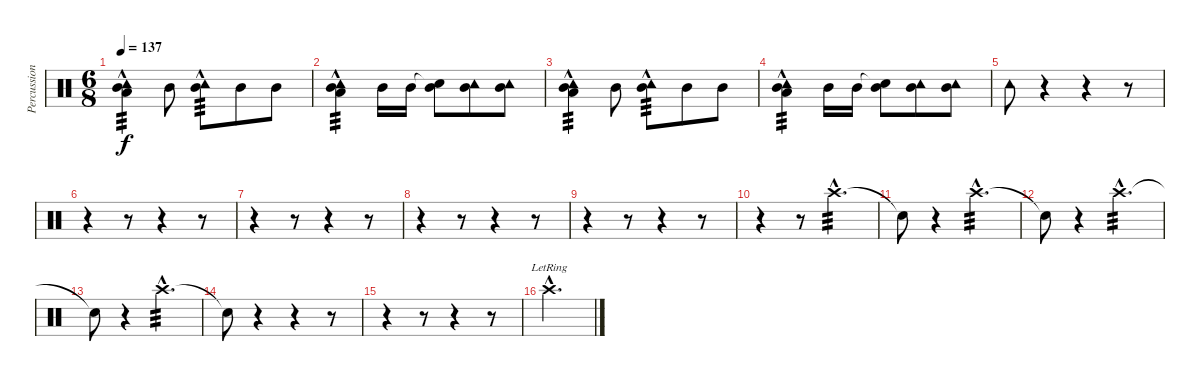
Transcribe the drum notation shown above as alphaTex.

\track ("Percussion" "Percussion") {instrument percussion}
\staff {score}
\articulation defaults
\ts (6 8)
\tempo 137
\clef neutral
\ks c
("Tambourine (hit)"{hac} "Mid Tom (hit)" "Low Floor Tom (hit)"{hac}).4{tp 3 dy f} "Mid Tom (hit)".8 ("Tambourine (hit)"{hac} "Mid Tom (hit)").8{tp 3} "Mid Tom (hit)".8 "Mid Tom (hit)".8 |
("Tambourine (hit)"{hac} "Mid Tom (hit)" "Low Floor Tom (hit)"{hac}).4{tp 3} "Mid Tom (hit)".16 "Mid Tom (hit)".16 ("Snare (hit)"{t} "Mid Tom (hit)").8 ("Tambourine (hit)" "Mid Tom (hit)").8 ("Tambourine (hit)" "Mid Tom (hit)").8 |
("Tambourine (hit)"{hac} "Mid Tom (hit)" "Low Floor Tom (hit)"{hac}).4{tp 3} "Mid Tom (hit)".8 ("Tambourine (hit)"{hac} "Mid Tom (hit)").8{tp 3} "Mid Tom (hit)".8 "Mid Tom (hit)".8 |
("Tambourine (hit)"{hac} "Mid Tom (hit)" "Low Floor Tom (hit)"{hac}).4{tp 3} "Mid Tom (hit)".16 "Mid Tom (hit)".16 ("Snare (hit)"{t} "Mid Tom (hit)").8 ("Tambourine (hit)" "Mid Tom (hit)").8 ("Tambourine (hit)" "Mid Tom (hit)").8 |
"Tambourine (hit)".8 r.4 r.4 r.8 |
r.4 r.8 r.4 r.8 |
r.4 r.8 r.4 r.8 |
r.4 r.8 r.4 r.8 |
r.4 r.8 r.4 r.8 |
r.4 r.8 "Crash high (hit)"{hac}.4{d tp 3} |
"Snare (hit)"{t}.8 r.4 "Crash high (hit)"{hac}.4{d tp 3} |
"Snare (hit)"{t}.8 r.4 "Crash high (hit)"{hac}.4{d tp 3} |
"Snare (hit)"{t}.8 r.4 "Crash high (hit)"{hac}.4{d tp 3} |
"Snare (hit)"{t}.8 r.4 r.4 r.8 |
r.4 r.8 r.4 r.8 |
"Crash high (hit)"{hac lr}.2{d}
